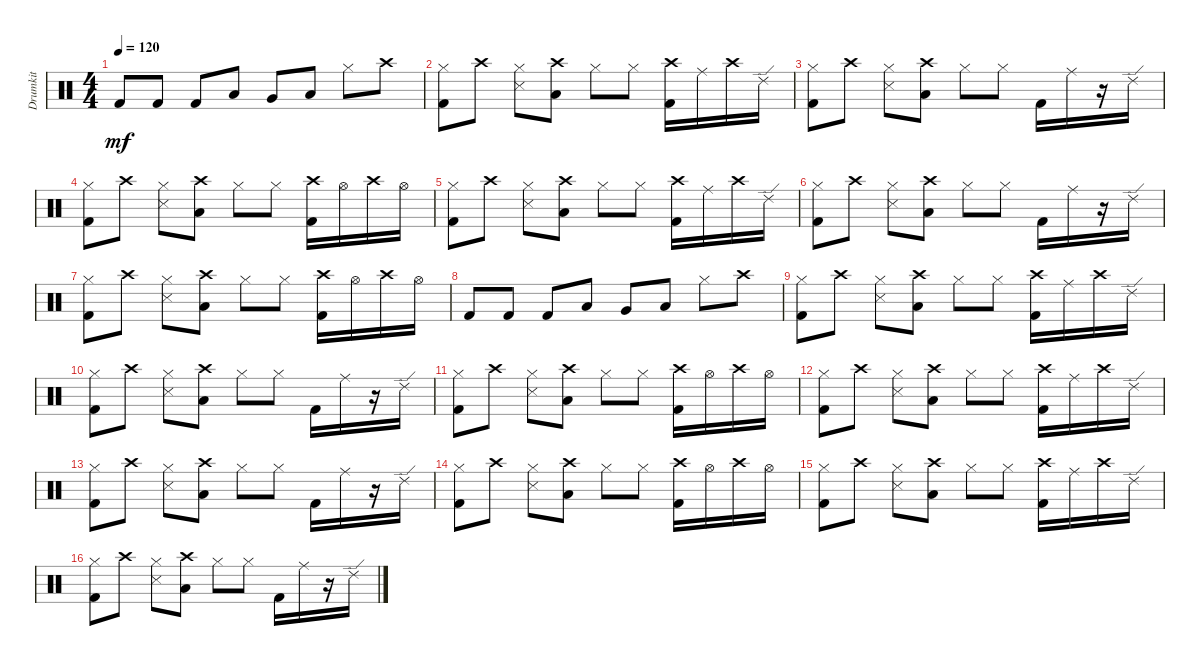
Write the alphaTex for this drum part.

\track ("Drumkit" "Drumkit") {instrument percussion}
\staff {score}
\articulation defaults
\ts (4 4)
\tempo 120
\clef neutral
\ks c "Kick (hit) 2".8{dy mf} "Kick (hit) 2".8 "Kick (hit) 2".8 "Low Floor Tom (hit)".8 "Very Low Tom (hit)".8 "Low Tom (hit)".8 "Hi-Hat (closed)".8 "Crash high (hit)".8
|
("Hi-Hat (closed)" "Kick (hit) 2").8 "Crash high (hit)".8 ("Hi-Hat (closed)" "Snare (side stick) 3").8 ("Crash high (hit)" "Low Floor Tom (hit)").8 "Hi-Hat (closed)".8 "Hi-Hat (closed)".8 ("Crash high (hit)" "Kick (hit) 2").16 "Ride (middle)".16 "Crash high (hit)".16 "Ride (edge) 2".16 |
("Hi-Hat (closed)" "Kick (hit) 2").8 "Crash high (hit)".8 ("Hi-Hat (closed)" "Snare (side stick) 3").8 ("Crash high (hit)" "Low Floor Tom (hit)").8 "Hi-Hat (closed)".8 "Hi-Hat (closed)".8 "Kick (hit) 2".16 "Ride (middle)".16 r.16 "Ride (edge) 2".16 |
("Hi-Hat (closed)" "Kick (hit) 2").8 "Crash high (hit)".8 ("Hi-Hat (closed)" "Snare (side stick) 3").8 ("Crash high (hit)" "Low Floor Tom (hit)").8 "Hi-Hat (closed)".8 "Hi-Hat (closed)".8 ("Crash high (hit)" "Kick (hit) 2").16 "Hi-Hat (open)".16 "Crash high (hit)".16 "Hi-Hat (open)".16 |
("Hi-Hat (closed)" "Kick (hit) 2").8 "Crash high (hit)".8 ("Hi-Hat (closed)" "Snare (side stick) 3").8 ("Crash high (hit)" "Low Floor Tom (hit)").8 "Hi-Hat (closed)".8 "Hi-Hat (closed)".8 ("Crash high (hit)" "Kick (hit) 2").16 "Ride (middle)".16 "Crash high (hit)".16 "Ride (edge) 2".16 |
("Hi-Hat (closed)" "Kick (hit) 2").8 "Crash high (hit)".8 ("Hi-Hat (closed)" "Snare (side stick) 3").8 ("Crash high (hit)" "Low Floor Tom (hit)").8 "Hi-Hat (closed)".8 "Hi-Hat (closed)".8 "Kick (hit) 2".16 "Ride (middle)".16 r.16 "Ride (edge) 2".16 |
("Hi-Hat (closed)" "Kick (hit) 2").8 "Crash high (hit)".8 ("Hi-Hat (closed)" "Snare (side stick) 3").8 ("Crash high (hit)" "Low Floor Tom (hit)").8 "Hi-Hat (closed)".8 "Hi-Hat (closed)".8 ("Crash high (hit)" "Kick (hit) 2").16 "Hi-Hat (open)".16 "Crash high (hit)".16 "Hi-Hat (open)".16 |
"Kick (hit) 2".8 "Kick (hit) 2".8 "Kick (hit) 2".8 "Low Floor Tom (hit)".8 "Very Low Tom (hit)".8 "Low Tom (hit)".8 "Hi-Hat (closed)".8 "Crash high (hit)".8 |
("Hi-Hat (closed)" "Kick (hit) 2").8 "Crash high (hit)".8 ("Hi-Hat (closed)" "Snare (side stick) 3").8 ("Crash high (hit)" "Low Floor Tom (hit)").8 "Hi-Hat (closed)".8 "Hi-Hat (closed)".8 ("Crash high (hit)" "Kick (hit) 2").16 "Ride (middle)".16 "Crash high (hit)".16 "Ride (edge) 2".16 |
("Hi-Hat (closed)" "Kick (hit) 2").8 "Crash high (hit)".8 ("Hi-Hat (closed)" "Snare (side stick) 3").8 ("Crash high (hit)" "Low Floor Tom (hit)").8 "Hi-Hat (closed)".8 "Hi-Hat (closed)".8 "Kick (hit) 2".16 "Ride (middle)".16 r.16 "Ride (edge) 2".16 |
("Hi-Hat (closed)" "Kick (hit) 2").8 "Crash high (hit)".8 ("Hi-Hat (closed)" "Snare (side stick) 3").8 ("Crash high (hit)" "Low Floor Tom (hit)").8 "Hi-Hat (closed)".8 "Hi-Hat (closed)".8 ("Crash high (hit)" "Kick (hit) 2").16 "Hi-Hat (open)".16 "Crash high (hit)".16 "Hi-Hat (open)".16 |
("Hi-Hat (closed)" "Kick (hit) 2").8 "Crash high (hit)".8 ("Hi-Hat (closed)" "Snare (side stick) 3").8 ("Crash high (hit)" "Low Floor Tom (hit)").8 "Hi-Hat (closed)".8 "Hi-Hat (closed)".8 ("Crash high (hit)" "Kick (hit) 2").16 "Ride (middle)".16 "Crash high (hit)".16 "Ride (edge) 2".16 |
("Hi-Hat (closed)" "Kick (hit) 2").8 "Crash high (hit)".8 ("Hi-Hat (closed)" "Snare (side stick) 3").8 ("Crash high (hit)" "Low Floor Tom (hit)").8 "Hi-Hat (closed)".8 "Hi-Hat (closed)".8 "Kick (hit) 2".16 "Ride (middle)".16 r.16 "Ride (edge) 2".16 |
("Hi-Hat (closed)" "Kick (hit) 2").8 "Crash high (hit)".8 ("Hi-Hat (closed)" "Snare (side stick) 3").8 ("Crash high (hit)" "Low Floor Tom (hit)").8 "Hi-Hat (closed)".8 "Hi-Hat (closed)".8 ("Crash high (hit)" "Kick (hit) 2").16 "Hi-Hat (open)".16 "Crash high (hit)".16 "Hi-Hat (open)".16 |
("Hi-Hat (closed)" "Kick (hit) 2").8 "Crash high (hit)".8 ("Hi-Hat (closed)" "Snare (side stick) 3").8 ("Crash high (hit)" "Low Floor Tom (hit)").8 "Hi-Hat (closed)".8 "Hi-Hat (closed)".8 ("Crash high (hit)" "Kick (hit) 2").16 "Ride (middle)".16 "Crash high (hit)".16 "Ride (edge) 2".16 |
("Hi-Hat (closed)" "Kick (hit) 2").8 "Crash high (hit)".8 ("Hi-Hat (closed)" "Snare (side stick) 3").8 ("Crash high (hit)" "Low Floor Tom (hit)").8 "Hi-Hat (closed)".8 "Hi-Hat (closed)".8 "Kick (hit) 2".16 "Ride (middle)".16 r.16 "Ride (edge) 2".16
